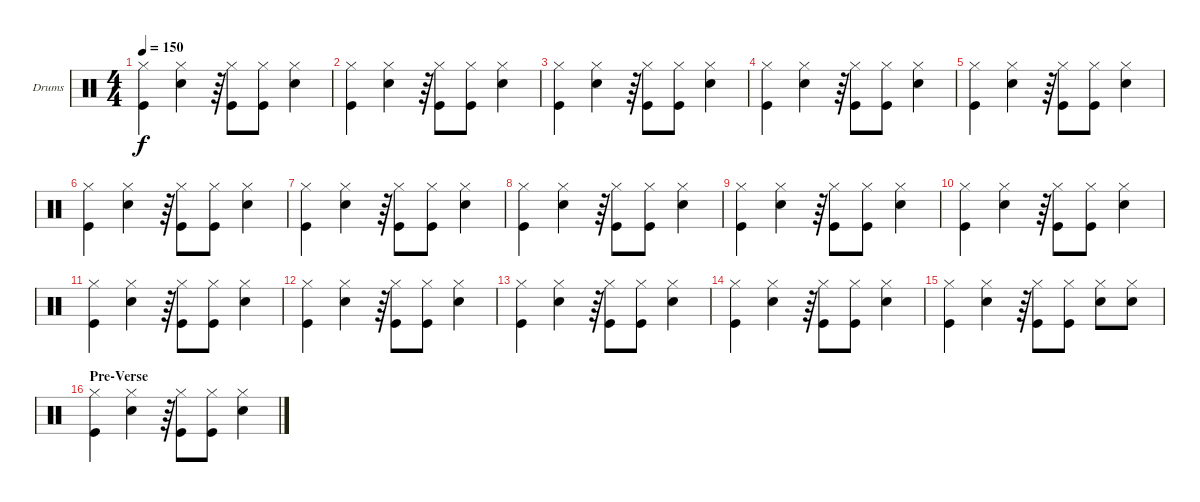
\defaultSystemsLayout 4
\bracketExtendMode groupsimilarinstruments
\firstSystemTrackNameOrientation horizontal
\otherSystemsTrackNameOrientation horizontal
\track ("Drum" "Drums") {instrument percussion}
\staff {score}
\articulation defaults
\ts (4 4)
\tempo 150
\clef neutral
\ks c
("Hi-Hat (closed)" "Kick (hit)").4{dy f} ("Hi-Hat (closed)" "Snare (hit) 2").4 r.64 ("Hi-Hat (closed)" "Kick (hit)").8 ("Hi-Hat (closed)" "Kick (hit)").8 ("Hi-Hat (closed)" "Snare (hit) 2").4 |
("Hi-Hat (closed)" "Kick (hit)").4 ("Hi-Hat (closed)" "Snare (hit) 2").4 r.64 ("Hi-Hat (closed)" "Kick (hit)").8 ("Hi-Hat (closed)" "Kick (hit)").8 ("Hi-Hat (closed)" "Snare (hit) 2").4 |
("Hi-Hat (closed)" "Kick (hit)").4 ("Hi-Hat (closed)" "Snare (hit) 2").4 r.64 ("Hi-Hat (closed)" "Kick (hit)").8 ("Hi-Hat (closed)" "Kick (hit)").8 ("Hi-Hat (closed)" "Snare (hit) 2").4 |
("Hi-Hat (closed)" "Kick (hit)").4 ("Hi-Hat (closed)" "Snare (hit) 2").4 r.64 ("Hi-Hat (closed)" "Kick (hit)").8 ("Hi-Hat (closed)" "Kick (hit)").8 ("Hi-Hat (closed)" "Snare (hit) 2").4 |
("Hi-Hat (closed)" "Kick (hit)").4 ("Hi-Hat (closed)" "Snare (hit) 2").4 r.64 ("Hi-Hat (closed)" "Kick (hit)").8 ("Hi-Hat (closed)" "Kick (hit)").8 ("Hi-Hat (closed)" "Snare (hit) 2").4 |
("Hi-Hat (closed)" "Kick (hit)").4 ("Hi-Hat (closed)" "Snare (hit) 2").4 r.64 ("Hi-Hat (closed)" "Kick (hit)").8 ("Hi-Hat (closed)" "Kick (hit)").8 ("Hi-Hat (closed)" "Snare (hit) 2").4 |
("Hi-Hat (closed)" "Kick (hit)").4 ("Hi-Hat (closed)" "Snare (hit) 2").4 r.64 ("Hi-Hat (closed)" "Kick (hit)").8 ("Hi-Hat (closed)" "Kick (hit)").8 ("Hi-Hat (closed)" "Snare (hit) 2").4 |
("Hi-Hat (closed)" "Kick (hit)").4 ("Hi-Hat (closed)" "Snare (hit) 2").4 r.64 ("Hi-Hat (closed)" "Kick (hit)").8 ("Hi-Hat (closed)" "Kick (hit)").8 ("Hi-Hat (closed)" "Snare (hit) 2").4 |
("Hi-Hat (closed)" "Kick (hit)").4 ("Hi-Hat (closed)" "Snare (hit) 2").4 r.64 ("Hi-Hat (closed)" "Kick (hit)").8 ("Hi-Hat (closed)" "Kick (hit)").8 ("Hi-Hat (closed)" "Snare (hit) 2").4 |
("Hi-Hat (closed)" "Kick (hit)").4 ("Hi-Hat (closed)" "Snare (hit) 2").4 r.64 ("Hi-Hat (closed)" "Kick (hit)").8 ("Hi-Hat (closed)" "Kick (hit)").8 ("Hi-Hat (closed)" "Snare (hit) 2").4 |
("Hi-Hat (closed)" "Kick (hit)").4 ("Hi-Hat (closed)" "Snare (hit) 2").4 r.64 ("Hi-Hat (closed)" "Kick (hit)").8 ("Hi-Hat (closed)" "Kick (hit)").8 ("Hi-Hat (closed)" "Snare (hit) 2").4 |
("Hi-Hat (closed)" "Kick (hit)").4 ("Hi-Hat (closed)" "Snare (hit) 2").4 r.64 ("Hi-Hat (closed)" "Kick (hit)").8 ("Hi-Hat (closed)" "Kick (hit)").8 ("Hi-Hat (closed)" "Snare (hit) 2").4 |
("Hi-Hat (closed)" "Kick (hit)").4 ("Hi-Hat (closed)" "Snare (hit) 2").4 r.64 ("Hi-Hat (closed)" "Kick (hit)").8 ("Hi-Hat (closed)" "Kick (hit)").8 ("Hi-Hat (closed)" "Snare (hit) 2").4 |
("Hi-Hat (closed)" "Kick (hit)").4 ("Hi-Hat (closed)" "Snare (hit) 2").4 r.64 ("Hi-Hat (closed)" "Kick (hit)").8 ("Hi-Hat (closed)" "Kick (hit)").8 ("Hi-Hat (closed)" "Snare (hit) 2").4 |
("Hi-Hat (closed)" "Kick (hit)").4 ("Hi-Hat (closed)" "Snare (hit) 2").4 r.64 ("Hi-Hat (closed)" "Kick (hit)").8 ("Hi-Hat (closed)" "Kick (hit)").8 ("Hi-Hat (closed)" "Snare (hit) 2").8 ("Hi-Hat (closed)" "Snare (hit) 2").8 |
\section ("" "Pre-Verse")
("Hi-Hat (closed)" "Kick (hit)").4 ("Hi-Hat (closed)" "Snare (hit) 2").4 r.64 ("Hi-Hat (closed)" "Kick (hit)").8 ("Hi-Hat (closed)" "Kick (hit)").8 ("Hi-Hat (closed)" "Snare (hit) 2").4
